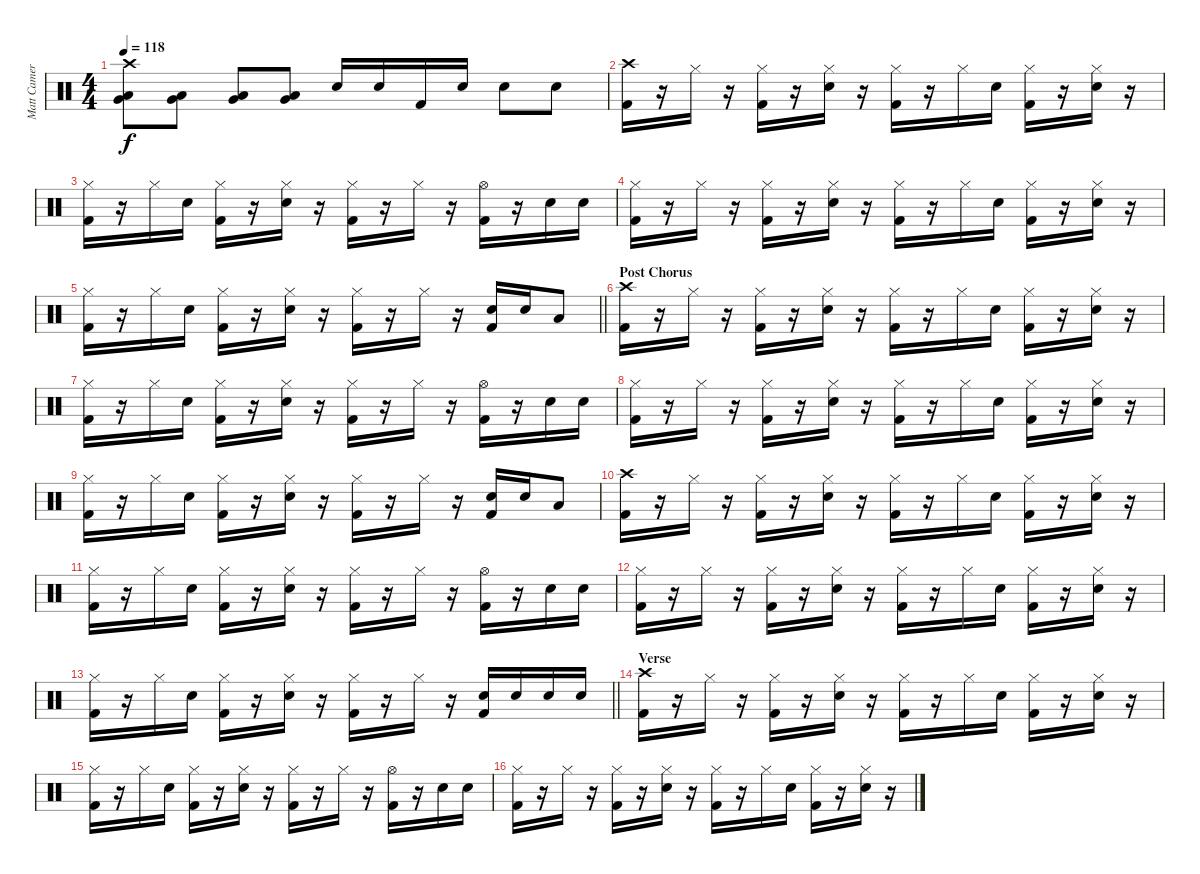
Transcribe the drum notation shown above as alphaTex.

\track ("Matt Cameron" "Matt Camer") {instrument percussion}
\staff {score}
\articulation defaults
\ts (4 4)
\tempo 118
\clef neutral
\ks c
("Crash high (hit)" "Very Low Tom (hit)" "Low Tom (hit)").8{dy f} ("Very Low Tom (hit)" "Low Tom (hit)").8 ("Very Low Tom (hit)" "Low Tom (hit)").8 ("Very Low Tom (hit)" "Low Tom (hit)").8 "Snare (hit) 2".16 "Snare (hit) 2".16 "Kick (hit) 2".16 "Snare (hit) 2".16 "Snare (hit) 2".8 "Snare (hit) 2".8 |
("Crash high (hit)" "Kick (hit) 2").16 r.16 "Hi-Hat (closed)".16 r.16 ("Hi-Hat (closed)" "Kick (hit) 2").16 r.16 ("Hi-Hat (closed)" "Snare (hit) 2").16 r.16 ("Hi-Hat (closed)" "Kick (hit) 2").16 r.16 "Hi-Hat (closed)".16 "Snare (hit) 2".16 ("Hi-Hat (closed)" "Kick (hit) 2").16 r.16 ("Hi-Hat (closed)" "Snare (hit) 2").16 r.16 |
("Hi-Hat (closed)" "Kick (hit) 2").16 r.16 "Hi-Hat (closed)".16 "Snare (hit) 2".16 ("Hi-Hat (closed)" "Kick (hit) 2").16 r.16 ("Hi-Hat (closed)" "Snare (hit) 2").16 r.16 ("Hi-Hat (closed)" "Kick (hit) 2").16 r.16 "Hi-Hat (closed)".16 r.16 ("Hi-Hat (open)" "Kick (hit) 2").16 r.16 "Snare (hit) 2".16 "Snare (hit) 2".16 |
("Hi-Hat (closed)" "Kick (hit) 2").16 r.16 "Hi-Hat (closed)".16 r.16 ("Hi-Hat (closed)" "Kick (hit) 2").16 r.16 ("Hi-Hat (closed)" "Snare (hit) 2").16 r.16 ("Hi-Hat (closed)" "Kick (hit) 2").16 r.16 "Hi-Hat (closed)".16 "Snare (hit) 2".16 ("Hi-Hat (closed)" "Kick (hit) 2").16 r.16 ("Hi-Hat (closed)" "Snare (hit) 2").16 r.16 |
\barLineRight lightlight
("Hi-Hat (closed)" "Kick (hit) 2").16 r.16 "Hi-Hat (closed)".16 "Snare (hit) 2".16 ("Hi-Hat (closed)" "Kick (hit) 2").16 r.16 ("Hi-Hat (closed)" "Snare (hit) 2").16 r.16 ("Hi-Hat (closed)" "Kick (hit) 2").16 r.16 "Hi-Hat (closed)".16 r.16 ("Snare (hit) 2" "Kick (hit) 2").16 "Snare (hit) 2".16 "Low Tom (hit)".8 |
\section ("" "Post Chorus")
("Crash high (hit)" "Kick (hit) 2").16 r.16 "Hi-Hat (closed)".16 r.16 ("Hi-Hat (closed)" "Kick (hit) 2").16 r.16 ("Hi-Hat (closed)" "Snare (hit) 2").16 r.16 ("Hi-Hat (closed)" "Kick (hit) 2").16 r.16 "Hi-Hat (closed)".16 "Snare (hit) 2".16 ("Hi-Hat (closed)" "Kick (hit) 2").16 r.16 ("Hi-Hat (closed)" "Snare (hit) 2").16 r.16 |
("Hi-Hat (closed)" "Kick (hit) 2").16 r.16 "Hi-Hat (closed)".16 "Snare (hit) 2".16 ("Hi-Hat (closed)" "Kick (hit) 2").16 r.16 ("Hi-Hat (closed)" "Snare (hit) 2").16 r.16 ("Hi-Hat (closed)" "Kick (hit) 2").16 r.16 "Hi-Hat (closed)".16 r.16 ("Hi-Hat (open)" "Kick (hit) 2").16 r.16 "Snare (hit) 2".16 "Snare (hit) 2".16 |
("Hi-Hat (closed)" "Kick (hit) 2").16 r.16 "Hi-Hat (closed)".16 r.16 ("Hi-Hat (closed)" "Kick (hit) 2").16 r.16 ("Hi-Hat (closed)" "Snare (hit) 2").16 r.16 ("Hi-Hat (closed)" "Kick (hit) 2").16 r.16 "Hi-Hat (closed)".16 "Snare (hit) 2".16 ("Hi-Hat (closed)" "Kick (hit) 2").16 r.16 ("Hi-Hat (closed)" "Snare (hit) 2").16 r.16 |
("Hi-Hat (closed)" "Kick (hit) 2").16 r.16 "Hi-Hat (closed)".16 "Snare (hit) 2".16 ("Hi-Hat (closed)" "Kick (hit) 2").16 r.16 ("Hi-Hat (closed)" "Snare (hit) 2").16 r.16 ("Hi-Hat (closed)" "Kick (hit) 2").16 r.16 "Hi-Hat (closed)".16 r.16 ("Snare (hit) 2" "Kick (hit) 2").16 "Snare (hit) 2".16 "Low Tom (hit)".8 |
("Crash high (hit)" "Kick (hit) 2").16 r.16 "Hi-Hat (closed)".16 r.16 ("Hi-Hat (closed)" "Kick (hit) 2").16 r.16 ("Hi-Hat (closed)" "Snare (hit) 2").16 r.16 ("Hi-Hat (closed)" "Kick (hit) 2").16 r.16 "Hi-Hat (closed)".16 "Snare (hit) 2".16 ("Hi-Hat (closed)" "Kick (hit) 2").16 r.16 ("Hi-Hat (closed)" "Snare (hit) 2").16 r.16 |
("Hi-Hat (closed)" "Kick (hit) 2").16 r.16 "Hi-Hat (closed)".16 "Snare (hit) 2".16 ("Hi-Hat (closed)" "Kick (hit) 2").16 r.16 ("Hi-Hat (closed)" "Snare (hit) 2").16 r.16 ("Hi-Hat (closed)" "Kick (hit) 2").16 r.16 "Hi-Hat (closed)".16 r.16 ("Hi-Hat (open)" "Kick (hit) 2").16 r.16 "Snare (hit) 2".16 "Snare (hit) 2".16 |
("Hi-Hat (closed)" "Kick (hit) 2").16 r.16 "Hi-Hat (closed)".16 r.16 ("Hi-Hat (closed)" "Kick (hit) 2").16 r.16 ("Hi-Hat (closed)" "Snare (hit) 2").16 r.16 ("Hi-Hat (closed)" "Kick (hit) 2").16 r.16 "Hi-Hat (closed)".16 "Snare (hit) 2".16 ("Hi-Hat (closed)" "Kick (hit) 2").16 r.16 ("Hi-Hat (closed)" "Snare (hit) 2").16 r.16 |
\barLineRight lightlight
("Hi-Hat (closed)" "Kick (hit) 2").16 r.16 "Hi-Hat (closed)".16 "Snare (hit) 2".16 ("Hi-Hat (closed)" "Kick (hit) 2").16 r.16 ("Hi-Hat (closed)" "Snare (hit) 2").16 r.16 ("Hi-Hat (closed)" "Kick (hit) 2").16 r.16 "Hi-Hat (closed)".16 r.16 ("Snare (hit) 2" "Kick (hit) 2").16 "Snare (hit) 2".16 "Snare (hit) 2".16 "Snare (hit) 2".16 |
\section ("" "Verse")
("Crash high (hit)" "Kick (hit) 2").16 r.16 "Hi-Hat (closed)".16 r.16 ("Hi-Hat (closed)" "Kick (hit) 2").16 r.16 ("Hi-Hat (closed)" "Snare (hit) 2").16 r.16 ("Hi-Hat (closed)" "Kick (hit) 2").16 r.16 "Hi-Hat (closed)".16 "Snare (hit) 2".16 ("Hi-Hat (closed)" "Kick (hit) 2").16 r.16 ("Hi-Hat (closed)" "Snare (hit) 2").16 r.16 |
("Hi-Hat (closed)" "Kick (hit) 2").16 r.16 "Hi-Hat (closed)".16 "Snare (hit) 2".16 ("Hi-Hat (closed)" "Kick (hit) 2").16 r.16 ("Hi-Hat (closed)" "Snare (hit) 2").16 r.16 ("Hi-Hat (closed)" "Kick (hit) 2").16 r.16 "Hi-Hat (closed)".16 r.16 ("Hi-Hat (open)" "Kick (hit) 2").16 r.16 "Snare (hit) 2".16 "Snare (hit) 2".16 |
("Hi-Hat (closed)" "Kick (hit) 2").16 r.16 "Hi-Hat (closed)".16 r.16 ("Hi-Hat (closed)" "Kick (hit) 2").16 r.16 ("Hi-Hat (closed)" "Snare (hit) 2").16 r.16 ("Hi-Hat (closed)" "Kick (hit) 2").16 r.16 "Hi-Hat (closed)".16 "Snare (hit) 2".16 ("Hi-Hat (closed)" "Kick (hit) 2").16 r.16 ("Hi-Hat (closed)" "Snare (hit) 2").16 r.16
